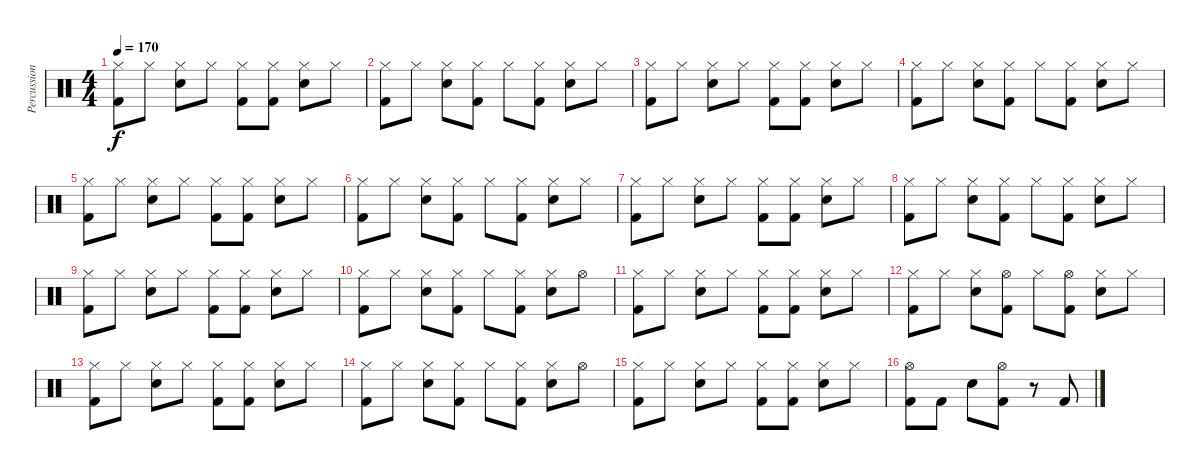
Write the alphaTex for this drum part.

\track ("Percussion" "Percussion") {instrument percussion}
\staff {score}
\articulation defaults
\ts (4 4)
\tempo 170
\clef neutral
\ks c
("Hi-Hat (closed)" "Kick (hit) 2").8{dy f} "Hi-Hat (closed)".8 ("Hi-Hat (closed)" "Electric Snare (hit)").8 "Hi-Hat (closed)".8 ("Hi-Hat (closed)" "Kick (hit) 2").8 ("Hi-Hat (closed)" "Kick (hit) 2").8 ("Hi-Hat (closed)" "Electric Snare (hit)").8 "Hi-Hat (closed)".8 |
("Hi-Hat (closed)" "Kick (hit) 2").8 "Hi-Hat (closed)".8 ("Hi-Hat (closed)" "Electric Snare (hit)").8 ("Hi-Hat (closed)" "Kick (hit) 2").8 "Hi-Hat (closed)".8 ("Hi-Hat (closed)" "Kick (hit) 2").8 ("Hi-Hat (closed)" "Electric Snare (hit)").8 "Hi-Hat (closed)".8 |
("Hi-Hat (closed)" "Kick (hit) 2").8 "Hi-Hat (closed)".8 ("Hi-Hat (closed)" "Electric Snare (hit)").8 "Hi-Hat (closed)".8 ("Hi-Hat (closed)" "Kick (hit) 2").8 ("Hi-Hat (closed)" "Kick (hit) 2").8 ("Hi-Hat (closed)" "Electric Snare (hit)").8 "Hi-Hat (closed)".8 |
("Hi-Hat (closed)" "Kick (hit) 2").8 "Hi-Hat (closed)".8 ("Hi-Hat (closed)" "Electric Snare (hit)").8 ("Hi-Hat (closed)" "Kick (hit) 2").8 "Hi-Hat (closed)".8 ("Hi-Hat (closed)" "Kick (hit) 2").8 ("Hi-Hat (closed)" "Electric Snare (hit)").8 "Hi-Hat (closed)".8 |
("Hi-Hat (closed)" "Kick (hit) 2").8 "Hi-Hat (closed)".8 ("Hi-Hat (closed)" "Electric Snare (hit)").8 "Hi-Hat (closed)".8 ("Hi-Hat (closed)" "Kick (hit) 2").8 ("Hi-Hat (closed)" "Kick (hit) 2").8 ("Hi-Hat (closed)" "Electric Snare (hit)").8 "Hi-Hat (closed)".8 |
("Hi-Hat (closed)" "Kick (hit) 2").8 "Hi-Hat (closed)".8 ("Hi-Hat (closed)" "Electric Snare (hit)").8 ("Hi-Hat (closed)" "Kick (hit) 2").8 "Hi-Hat (closed)".8 ("Hi-Hat (closed)" "Kick (hit) 2").8 ("Hi-Hat (closed)" "Electric Snare (hit)").8 "Hi-Hat (closed)".8 |
("Hi-Hat (closed)" "Kick (hit) 2").8 "Hi-Hat (closed)".8 ("Hi-Hat (closed)" "Electric Snare (hit)").8 "Hi-Hat (closed)".8 ("Hi-Hat (closed)" "Kick (hit) 2").8 ("Hi-Hat (closed)" "Kick (hit) 2").8 ("Hi-Hat (closed)" "Electric Snare (hit)").8 "Hi-Hat (closed)".8 |
("Hi-Hat (closed)" "Kick (hit) 2").8 "Hi-Hat (closed)".8 ("Hi-Hat (closed)" "Electric Snare (hit)").8 ("Hi-Hat (closed)" "Kick (hit) 2").8 "Hi-Hat (closed)".8 ("Hi-Hat (closed)" "Kick (hit) 2").8 ("Hi-Hat (closed)" "Electric Snare (hit)").8 "Hi-Hat (closed)".8 |
("Hi-Hat (closed)" "Kick (hit) 2").8 "Hi-Hat (closed)".8 ("Hi-Hat (closed)" "Electric Snare (hit)").8 "Hi-Hat (closed)".8 ("Hi-Hat (closed)" "Kick (hit) 2").8 ("Hi-Hat (closed)" "Kick (hit) 2").8 ("Hi-Hat (closed)" "Electric Snare (hit)").8 "Hi-Hat (closed)".8 |
("Hi-Hat (closed)" "Kick (hit) 2").8 "Hi-Hat (closed)".8 ("Hi-Hat (closed)" "Electric Snare (hit)").8 ("Hi-Hat (closed)" "Kick (hit) 2").8 "Hi-Hat (closed)".8 ("Hi-Hat (closed)" "Kick (hit) 2").8 ("Hi-Hat (closed)" "Electric Snare (hit)").8 "Hi-Hat (open)".8 |
("Hi-Hat (closed)" "Kick (hit) 2").8 "Hi-Hat (closed)".8 ("Hi-Hat (closed)" "Electric Snare (hit)").8 "Hi-Hat (closed)".8 ("Hi-Hat (closed)" "Kick (hit) 2").8 ("Hi-Hat (closed)" "Kick (hit) 2").8 ("Hi-Hat (closed)" "Electric Snare (hit)").8 "Hi-Hat (closed)".8 |
("Hi-Hat (closed)" "Kick (hit) 2").8 "Hi-Hat (closed)".8 ("Hi-Hat (closed)" "Electric Snare (hit)").8 ("Hi-Hat (open)" "Kick (hit) 2").8 "Hi-Hat (closed)".8 ("Hi-Hat (open)" "Kick (hit) 2").8 ("Hi-Hat (closed)" "Electric Snare (hit)").8 "Hi-Hat (closed)".8 |
("Hi-Hat (closed)" "Kick (hit) 2").8 "Hi-Hat (closed)".8 ("Hi-Hat (closed)" "Electric Snare (hit)").8 "Hi-Hat (closed)".8 ("Hi-Hat (closed)" "Kick (hit) 2").8 ("Hi-Hat (closed)" "Kick (hit) 2").8 ("Hi-Hat (closed)" "Electric Snare (hit)").8 "Hi-Hat (closed)".8 |
("Hi-Hat (closed)" "Kick (hit) 2").8 "Hi-Hat (closed)".8 ("Hi-Hat (closed)" "Electric Snare (hit)").8 ("Hi-Hat (closed)" "Kick (hit) 2").8 "Hi-Hat (closed)".8 ("Hi-Hat (closed)" "Kick (hit) 2").8 ("Hi-Hat (closed)" "Electric Snare (hit)").8 "Hi-Hat (open)".8 |
("Hi-Hat (closed)" "Kick (hit) 2").8 "Hi-Hat (closed)".8 ("Hi-Hat (closed)" "Electric Snare (hit)").8 "Hi-Hat (closed)".8 ("Hi-Hat (closed)" "Kick (hit) 2").8 ("Hi-Hat (closed)" "Kick (hit) 2").8 ("Hi-Hat (closed)" "Electric Snare (hit)").8 "Hi-Hat (closed)".8 |
("Hi-Hat (open)" "Kick (hit) 2").8 "Kick (hit) 2".8 "Electric Snare (hit)".8 ("Hi-Hat (open)" "Kick (hit) 2").8 r.8 "Kick (hit) 2".8
